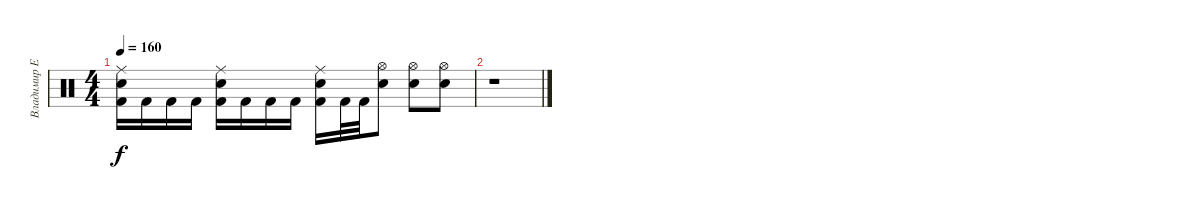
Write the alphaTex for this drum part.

\track ("Владимир Ермаков" "Владимир Е") {instrument percussion}
\staff {score}
\articulation defaults
\ts (4 4)
\tempo 160
\clef neutral
\ks c
("Ride (middle)" "Kick (hit) 2" "Electric Snare (hit)").16{dy f} "Kick (hit) 2".16 "Kick (hit) 2".16 "Kick (hit) 2".16 ("Ride (middle)" "Kick (hit) 2" "Electric Snare (hit)").16 "Kick (hit) 2".16 "Kick (hit) 2".16 "Kick (hit) 2".16 ("Ride (middle)" "Kick (hit) 2" "Electric Snare (hit)").16 "Kick (hit) 2".32 "Kick (hit) 2".32 ("Hi-Hat (open)" "Electric Snare (hit)").8 ("Hi-Hat (open)" "Electric Snare (hit)").8 ("Hi-Hat (open)" "Electric Snare (hit)").8 |
r.1
